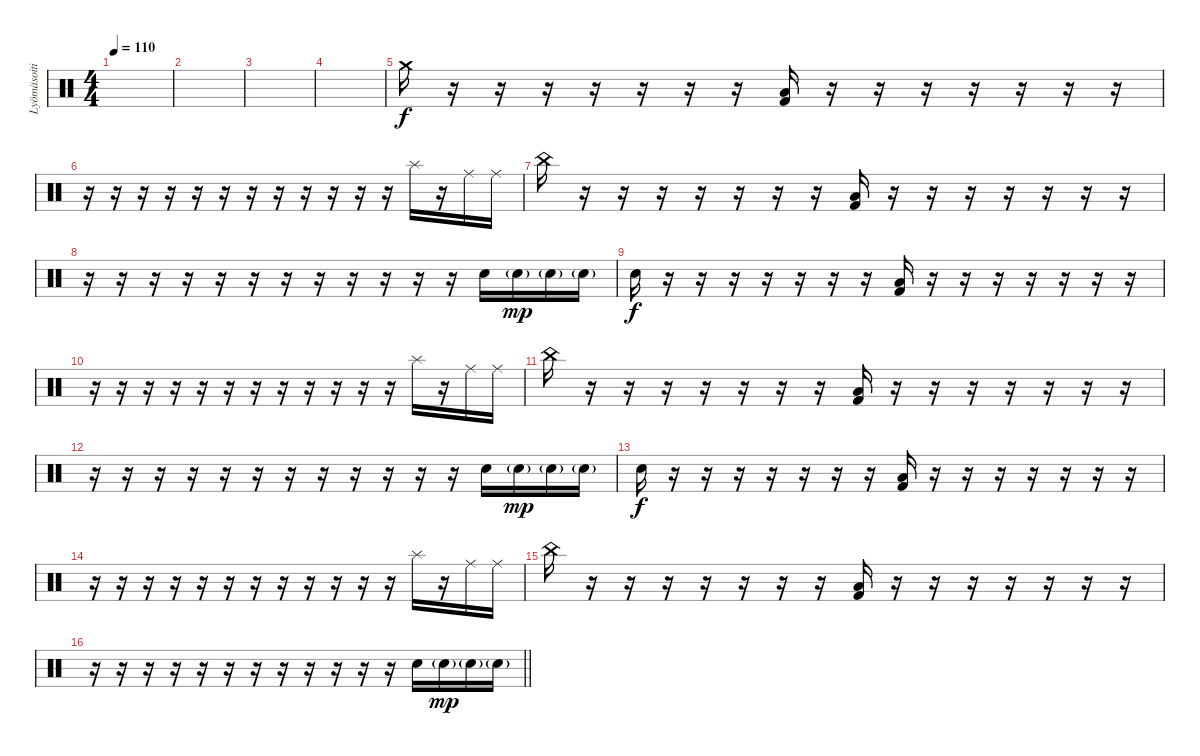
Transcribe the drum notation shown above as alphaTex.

\track ("Lyömäsoitin" "Lyömäsoiti") {instrument percussion}
\staff {score}
\articulation defaults
\ts (4 4)
\tempo 110
\clef neutral
\ks c
|
|
|
|
"Crash medium (hit)".16 r.16 r.16 r.16 r.16 r.16 r.16 r.16 ("Low Tom (hit)" "Kick (hit) 2").16 r.16 r.16 r.16 r.16 r.16 r.16 r.16 |
r.16 r.16 r.16 r.16 r.16 r.16 r.16 r.16 r.16 r.16 r.16 r.16 "Splash (hit)".16 r.16 "Ride (middle)".16 "Ride (middle)".16 |
"China (hit)".16 r.16 r.16 r.16 r.16 r.16 r.16 r.16 ("Low Tom (hit)" "Kick (hit) 2").16 r.16 r.16 r.16 r.16 r.16 r.16 r.16 |
r.16 r.16 r.16 r.16 r.16 r.16 r.16 r.16 r.16 r.16 r.16 r.16 "Snare (hit) 2".16 "Snare (hit) 2"{g}.16{dy mp} "Snare (hit) 2"{g}.16 "Snare (hit) 2"{g}.16 |
"Snare (hit) 2".16{dy f} r.16 r.16 r.16 r.16 r.16 r.16 r.16 ("Low Tom (hit)" "Kick (hit) 2").16 r.16 r.16 r.16 r.16 r.16 r.16 r.16 |
r.16 r.16 r.16 r.16 r.16 r.16 r.16 r.16 r.16 r.16 r.16 r.16 "Splash (hit)".16 r.16 "Ride (middle)".16 "Ride (middle)".16 |
"China (hit)".16 r.16 r.16 r.16 r.16 r.16 r.16 r.16 ("Low Tom (hit)" "Kick (hit) 2").16 r.16 r.16 r.16 r.16 r.16 r.16 r.16 |
r.16 r.16 r.16 r.16 r.16 r.16 r.16 r.16 r.16 r.16 r.16 r.16 "Snare (hit) 2".16 "Snare (hit) 2"{g}.16{dy mp} "Snare (hit) 2"{g}.16 "Snare (hit) 2"{g}.16 |
"Snare (hit) 2".16{dy f} r.16 r.16 r.16 r.16 r.16 r.16 r.16 ("Low Tom (hit)" "Kick (hit) 2").16 r.16 r.16 r.16 r.16 r.16 r.16 r.16 |
r.16 r.16 r.16 r.16 r.16 r.16 r.16 r.16 r.16 r.16 r.16 r.16 "Splash (hit)".16 r.16 "Ride (middle)".16 "Ride (middle)".16 |
"China (hit)".16 r.16 r.16 r.16 r.16 r.16 r.16 r.16 ("Low Tom (hit)" "Kick (hit) 2").16 r.16 r.16 r.16 r.16 r.16 r.16 r.16 |
\barLineRight lightlight
r.16 r.16 r.16 r.16 r.16 r.16 r.16 r.16 r.16 r.16 r.16 r.16 "Snare (hit) 2".16 "Snare (hit) 2"{g}.16{dy mp} "Snare (hit) 2"{g}.16 "Snare (hit) 2"{g}.16
